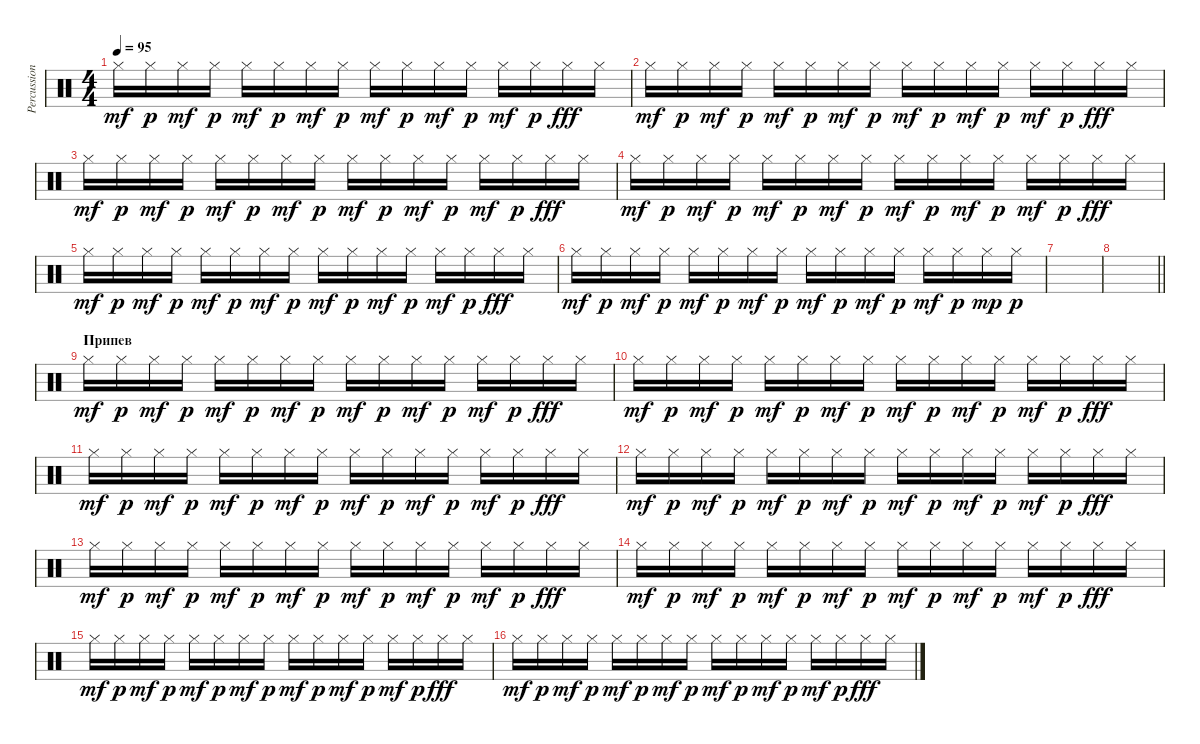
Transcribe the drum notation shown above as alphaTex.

\track ("Percussion" "Percussion") {instrument percussion}
\staff {score}
\articulation defaults
\ts (4 4)
\tempo 95
\clef neutral
\ks c "Hi-Hat (closed)".16{dy mf} "Hi-Hat (closed)".16{dy p} "Hi-Hat (closed)".16{dy mf} "Hi-Hat (closed)".16{dy p} "Hi-Hat (closed)".16{dy mf} "Hi-Hat (closed)".16{dy p} "Hi-Hat (closed)".16{dy mf} "Hi-Hat (closed)".16{dy p} "Hi-Hat (closed)".16{dy mf} "Hi-Hat (closed)".16{dy p} "Hi-Hat (closed)".16{dy mf} "Hi-Hat (closed)".16{dy p} "Hi-Hat (closed)".16{dy mf} "Hi-Hat (closed)".16{dy p} "Hi-Hat (closed)".16{dy fff} "Hi-Hat (closed)".16
|
"Hi-Hat (closed)".16{dy mf} "Hi-Hat (closed)".16{dy p} "Hi-Hat (closed)".16{dy mf} "Hi-Hat (closed)".16{dy p} "Hi-Hat (closed)".16{dy mf} "Hi-Hat (closed)".16{dy p} "Hi-Hat (closed)".16{dy mf} "Hi-Hat (closed)".16{dy p} "Hi-Hat (closed)".16{dy mf} "Hi-Hat (closed)".16{dy p} "Hi-Hat (closed)".16{dy mf} "Hi-Hat (closed)".16{dy p} "Hi-Hat (closed)".16{dy mf} "Hi-Hat (closed)".16{dy p} "Hi-Hat (closed)".16{dy fff} "Hi-Hat (closed)".16 |
"Hi-Hat (closed)".16{dy mf} "Hi-Hat (closed)".16{dy p} "Hi-Hat (closed)".16{dy mf} "Hi-Hat (closed)".16{dy p} "Hi-Hat (closed)".16{dy mf} "Hi-Hat (closed)".16{dy p} "Hi-Hat (closed)".16{dy mf} "Hi-Hat (closed)".16{dy p} "Hi-Hat (closed)".16{dy mf} "Hi-Hat (closed)".16{dy p} "Hi-Hat (closed)".16{dy mf} "Hi-Hat (closed)".16{dy p} "Hi-Hat (closed)".16{dy mf} "Hi-Hat (closed)".16{dy p} "Hi-Hat (closed)".16{dy fff} "Hi-Hat (closed)".16 |
"Hi-Hat (closed)".16{dy mf} "Hi-Hat (closed)".16{dy p} "Hi-Hat (closed)".16{dy mf} "Hi-Hat (closed)".16{dy p} "Hi-Hat (closed)".16{dy mf} "Hi-Hat (closed)".16{dy p} "Hi-Hat (closed)".16{dy mf} "Hi-Hat (closed)".16{dy p} "Hi-Hat (closed)".16{dy mf} "Hi-Hat (closed)".16{dy p} "Hi-Hat (closed)".16{dy mf} "Hi-Hat (closed)".16{dy p} "Hi-Hat (closed)".16{dy mf} "Hi-Hat (closed)".16{dy p} "Hi-Hat (closed)".16{dy fff} "Hi-Hat (closed)".16 |
"Hi-Hat (closed)".16{dy mf} "Hi-Hat (closed)".16{dy p} "Hi-Hat (closed)".16{dy mf} "Hi-Hat (closed)".16{dy p} "Hi-Hat (closed)".16{dy mf} "Hi-Hat (closed)".16{dy p} "Hi-Hat (closed)".16{dy mf} "Hi-Hat (closed)".16{dy p} "Hi-Hat (closed)".16{dy mf} "Hi-Hat (closed)".16{dy p} "Hi-Hat (closed)".16{dy mf} "Hi-Hat (closed)".16{dy p} "Hi-Hat (closed)".16{dy mf} "Hi-Hat (closed)".16{dy p} "Hi-Hat (closed)".16{dy fff} "Hi-Hat (closed)".16 |
"Hi-Hat (closed)".16{dy mf} "Hi-Hat (closed)".16{dy p} "Hi-Hat (closed)".16{dy mf} "Hi-Hat (closed)".16{dy p} "Hi-Hat (closed)".16{dy mf} "Hi-Hat (closed)".16{dy p} "Hi-Hat (closed)".16{dy mf} "Hi-Hat (closed)".16{dy p} "Hi-Hat (closed)".16{dy mf} "Hi-Hat (closed)".16{dy p} "Hi-Hat (closed)".16{dy mf} "Hi-Hat (closed)".16{dy p} "Hi-Hat (closed)".16{dy mf} "Hi-Hat (closed)".16{dy p} "Hi-Hat (closed)".16{dy mp} "Hi-Hat (closed)".16{dy p} |
|
\barLineRight lightlight
|
\section ("" "Припев")
"Hi-Hat (closed)".16{dy mf} "Hi-Hat (closed)".16{dy p} "Hi-Hat (closed)".16{dy mf} "Hi-Hat (closed)".16{dy p} "Hi-Hat (closed)".16{dy mf} "Hi-Hat (closed)".16{dy p} "Hi-Hat (closed)".16{dy mf} "Hi-Hat (closed)".16{dy p} "Hi-Hat (closed)".16{dy mf} "Hi-Hat (closed)".16{dy p} "Hi-Hat (closed)".16{dy mf} "Hi-Hat (closed)".16{dy p} "Hi-Hat (closed)".16{dy mf} "Hi-Hat (closed)".16{dy p} "Hi-Hat (closed)".16{dy fff} "Hi-Hat (closed)".16 |
"Hi-Hat (closed)".16{dy mf} "Hi-Hat (closed)".16{dy p} "Hi-Hat (closed)".16{dy mf} "Hi-Hat (closed)".16{dy p} "Hi-Hat (closed)".16{dy mf} "Hi-Hat (closed)".16{dy p} "Hi-Hat (closed)".16{dy mf} "Hi-Hat (closed)".16{dy p} "Hi-Hat (closed)".16{dy mf} "Hi-Hat (closed)".16{dy p} "Hi-Hat (closed)".16{dy mf} "Hi-Hat (closed)".16{dy p} "Hi-Hat (closed)".16{dy mf} "Hi-Hat (closed)".16{dy p} "Hi-Hat (closed)".16{dy fff} "Hi-Hat (closed)".16 |
"Hi-Hat (closed)".16{dy mf} "Hi-Hat (closed)".16{dy p} "Hi-Hat (closed)".16{dy mf} "Hi-Hat (closed)".16{dy p} "Hi-Hat (closed)".16{dy mf} "Hi-Hat (closed)".16{dy p} "Hi-Hat (closed)".16{dy mf} "Hi-Hat (closed)".16{dy p} "Hi-Hat (closed)".16{dy mf} "Hi-Hat (closed)".16{dy p} "Hi-Hat (closed)".16{dy mf} "Hi-Hat (closed)".16{dy p} "Hi-Hat (closed)".16{dy mf} "Hi-Hat (closed)".16{dy p} "Hi-Hat (closed)".16{dy fff} "Hi-Hat (closed)".16 |
"Hi-Hat (closed)".16{dy mf} "Hi-Hat (closed)".16{dy p} "Hi-Hat (closed)".16{dy mf} "Hi-Hat (closed)".16{dy p} "Hi-Hat (closed)".16{dy mf} "Hi-Hat (closed)".16{dy p} "Hi-Hat (closed)".16{dy mf} "Hi-Hat (closed)".16{dy p} "Hi-Hat (closed)".16{dy mf} "Hi-Hat (closed)".16{dy p} "Hi-Hat (closed)".16{dy mf} "Hi-Hat (closed)".16{dy p} "Hi-Hat (closed)".16{dy mf} "Hi-Hat (closed)".16{dy p} "Hi-Hat (closed)".16{dy fff} "Hi-Hat (closed)".16 |
"Hi-Hat (closed)".16{dy mf} "Hi-Hat (closed)".16{dy p} "Hi-Hat (closed)".16{dy mf} "Hi-Hat (closed)".16{dy p} "Hi-Hat (closed)".16{dy mf} "Hi-Hat (closed)".16{dy p} "Hi-Hat (closed)".16{dy mf} "Hi-Hat (closed)".16{dy p} "Hi-Hat (closed)".16{dy mf} "Hi-Hat (closed)".16{dy p} "Hi-Hat (closed)".16{dy mf} "Hi-Hat (closed)".16{dy p} "Hi-Hat (closed)".16{dy mf} "Hi-Hat (closed)".16{dy p} "Hi-Hat (closed)".16{dy fff} "Hi-Hat (closed)".16 |
"Hi-Hat (closed)".16{dy mf} "Hi-Hat (closed)".16{dy p} "Hi-Hat (closed)".16{dy mf} "Hi-Hat (closed)".16{dy p} "Hi-Hat (closed)".16{dy mf} "Hi-Hat (closed)".16{dy p} "Hi-Hat (closed)".16{dy mf} "Hi-Hat (closed)".16{dy p} "Hi-Hat (closed)".16{dy mf} "Hi-Hat (closed)".16{dy p} "Hi-Hat (closed)".16{dy mf} "Hi-Hat (closed)".16{dy p} "Hi-Hat (closed)".16{dy mf} "Hi-Hat (closed)".16{dy p} "Hi-Hat (closed)".16{dy fff} "Hi-Hat (closed)".16 |
"Hi-Hat (closed)".16{dy mf} "Hi-Hat (closed)".16{dy p} "Hi-Hat (closed)".16{dy mf} "Hi-Hat (closed)".16{dy p} "Hi-Hat (closed)".16{dy mf} "Hi-Hat (closed)".16{dy p} "Hi-Hat (closed)".16{dy mf} "Hi-Hat (closed)".16{dy p} "Hi-Hat (closed)".16{dy mf} "Hi-Hat (closed)".16{dy p} "Hi-Hat (closed)".16{dy mf} "Hi-Hat (closed)".16{dy p} "Hi-Hat (closed)".16{dy mf} "Hi-Hat (closed)".16{dy p} "Hi-Hat (closed)".16{dy fff} "Hi-Hat (closed)".16 |
"Hi-Hat (closed)".16{dy mf} "Hi-Hat (closed)".16{dy p} "Hi-Hat (closed)".16{dy mf} "Hi-Hat (closed)".16{dy p} "Hi-Hat (closed)".16{dy mf} "Hi-Hat (closed)".16{dy p} "Hi-Hat (closed)".16{dy mf} "Hi-Hat (closed)".16{dy p} "Hi-Hat (closed)".16{dy mf} "Hi-Hat (closed)".16{dy p} "Hi-Hat (closed)".16{dy mf} "Hi-Hat (closed)".16{dy p} "Hi-Hat (closed)".16{dy mf} "Hi-Hat (closed)".16{dy p} "Hi-Hat (closed)".16{dy fff} "Hi-Hat (closed)".16
